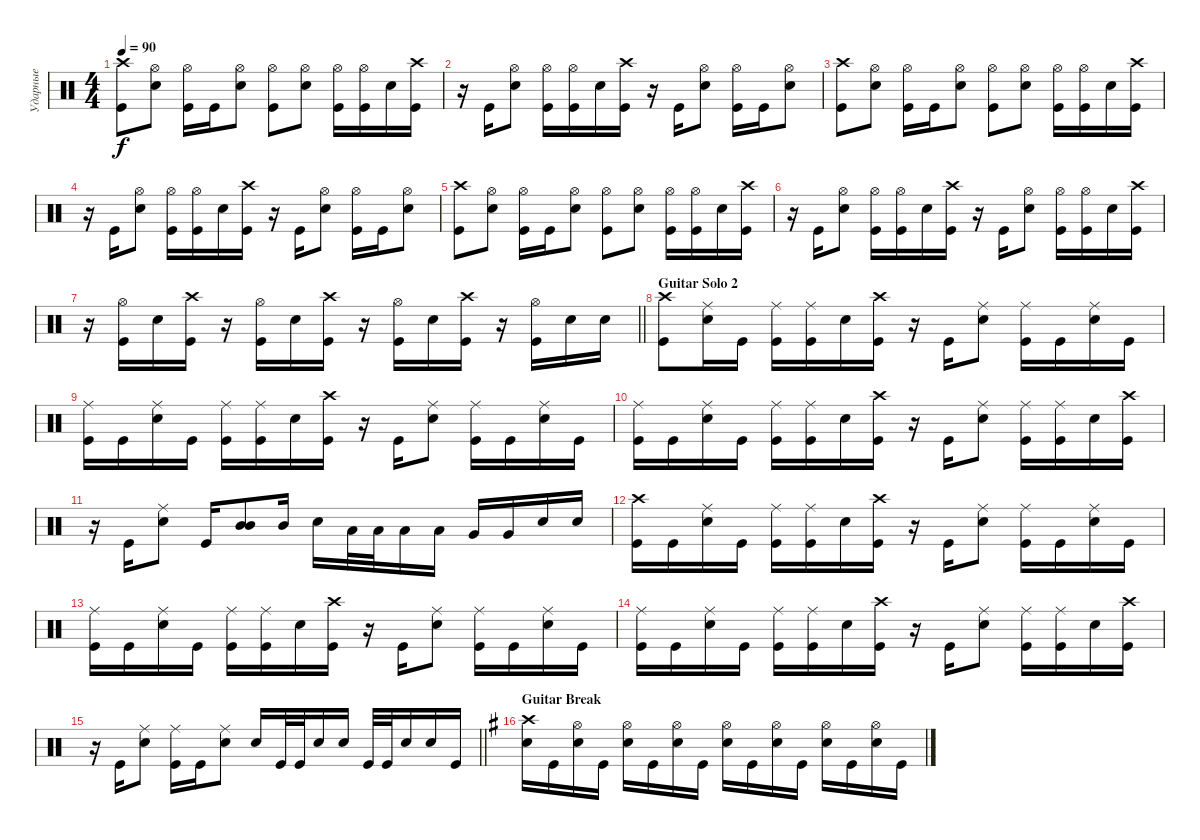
\track ("Ударные" "Ударные") {instrument percussion}
\staff {score}
\articulation defaults
\ts (4 4)
\tempo 90
\clef neutral
\ks aminor
("Kick (hit)" "Crash high (hit)").8{dy f} ("Snare (hit) 2" "Hi-Hat (open)").8 ("Kick (hit)" "Hi-Hat (open)").16 "Kick (hit)".16 ("Snare (hit) 2" "Hi-Hat (open)").8 ("Kick (hit)" "Hi-Hat (open)").8 ("Snare (hit) 2" "Hi-Hat (open)").8 ("Kick (hit)" "Hi-Hat (open)").16 ("Kick (hit)" "Hi-Hat (open)").16 "Snare (hit) 2".16 ("Crash high (hit)" "Kick (hit)").16 |
r.16 "Kick (hit)".16 ("Snare (hit) 2" "Hi-Hat (open)").8 ("Kick (hit)" "Hi-Hat (open)").16 ("Kick (hit)" "Hi-Hat (open)").16 "Snare (hit) 2".16 ("Crash high (hit)" "Kick (hit)").16 r.16 "Kick (hit)".16 ("Snare (hit) 2" "Hi-Hat (open)").8 ("Kick (hit)" "Hi-Hat (open)").16 "Kick (hit)".16 ("Snare (hit) 2" "Hi-Hat (open)").8 |
("Kick (hit)" "Crash high (hit)").8 ("Snare (hit) 2" "Hi-Hat (open)").8 ("Kick (hit)" "Hi-Hat (open)").16 "Kick (hit)".16 ("Snare (hit) 2" "Hi-Hat (open)").8 ("Kick (hit)" "Hi-Hat (open)").8 ("Snare (hit) 2" "Hi-Hat (open)").8 ("Kick (hit)" "Hi-Hat (open)").16 ("Kick (hit)" "Hi-Hat (open)").16 "Snare (hit) 2".16 ("Crash high (hit)" "Kick (hit)").16 |
r.16 "Kick (hit)".16 ("Snare (hit) 2" "Hi-Hat (open)").8 ("Kick (hit)" "Hi-Hat (open)").16 ("Kick (hit)" "Hi-Hat (open)").16 "Snare (hit) 2".16 ("Crash high (hit)" "Kick (hit)").16 r.16 "Kick (hit)".16 ("Snare (hit) 2" "Hi-Hat (open)").8 ("Kick (hit)" "Hi-Hat (open)").16 "Kick (hit)".16 ("Snare (hit) 2" "Hi-Hat (open)").8 |
("Kick (hit)" "Crash high (hit)").8 ("Snare (hit) 2" "Hi-Hat (open)").8 ("Kick (hit)" "Hi-Hat (open)").16 "Kick (hit)".16 ("Snare (hit) 2" "Hi-Hat (open)").8 ("Kick (hit)" "Hi-Hat (open)").8 ("Snare (hit) 2" "Hi-Hat (open)").8 ("Kick (hit)" "Hi-Hat (open)").16 ("Kick (hit)" "Hi-Hat (open)").16 "Snare (hit) 2".16 ("Crash high (hit)" "Kick (hit)").16 |
r.16 "Kick (hit)".16 ("Snare (hit) 2" "Hi-Hat (open)").8 ("Kick (hit)" "Hi-Hat (open)").16 ("Kick (hit)" "Hi-Hat (open)").16 "Snare (hit) 2".16 ("Crash high (hit)" "Kick (hit)").16 r.16 "Kick (hit)".16 ("Snare (hit) 2" "Hi-Hat (open)").8 ("Kick (hit)" "Hi-Hat (open)").16 ("Kick (hit)" "Hi-Hat (open)").16 "Snare (hit) 2".16 ("Kick (hit)" "Crash high (hit)").16 |
\barLineRight lightlight
r.16 ("Kick (hit)" "Hi-Hat (open)").16 "Snare (hit) 2".16 ("Kick (hit)" "Crash high (hit)").16 r.16 ("Kick (hit)" "Hi-Hat (open)").16 "Snare (hit) 2".16 ("Kick (hit)" "Crash high (hit)").16 r.16 ("Kick (hit)" "Hi-Hat (open)").16 "Snare (hit) 2".16 ("Kick (hit)" "Crash high (hit)").16 r.16 ("Kick (hit)" "Hi-Hat (open)").16 "Snare (hit) 2".16 "Snare (hit) 2".16 |
\section ("" "Guitar Solo 2")
("Kick (hit)" "Crash high (hit)").8 ("Snare (hit) 2" "Ride (middle)").16 "Kick (hit)".16 ("Kick (hit)" "Ride (middle)").16 ("Kick (hit)" "Ride (middle)").16 "Snare (hit) 2".16 ("Kick (hit)" "Crash high (hit)").16 r.16 "Kick (hit)".16 ("Snare (hit) 2" "Ride (middle)").8 ("Kick (hit)" "Ride (middle)").16 "Kick (hit)".16 ("Snare (hit) 2" "Ride (middle)").16 "Kick (hit)".16 |
("Kick (hit)" "Ride (middle)").16 "Kick (hit)".16 ("Snare (hit) 2" "Ride (middle)").16 "Kick (hit)".16 ("Kick (hit)" "Ride (middle)").16 ("Kick (hit)" "Ride (middle)").16 "Snare (hit) 2".16 ("Kick (hit)" "Crash high (hit)").16 r.16 "Kick (hit)".16 ("Snare (hit) 2" "Ride (middle)").8 ("Kick (hit)" "Ride (middle)").16 "Kick (hit)".16 ("Snare (hit) 2" "Ride (middle)").16 "Kick (hit)".16 |
("Kick (hit)" "Ride (middle)").16 "Kick (hit)".16 ("Snare (hit) 2" "Ride (middle)").16 "Kick (hit)".16 ("Kick (hit)" "Ride (middle)").16 ("Kick (hit)" "Ride (middle)").16 "Snare (hit) 2".16 ("Kick (hit)" "Crash high (hit)").16 r.16 "Kick (hit)".16 ("Snare (hit) 2" "Ride (middle)").8 ("Kick (hit)" "Ride (middle)").16 ("Kick (hit)" "Ride (middle)").16 "Snare (hit) 2".16 ("Kick (hit)" "Crash high (hit)").16 |
r.16 "Kick (hit)".16 ("Snare (hit) 2" "Ride (middle)").8 "Kick (hit)".16 ("Mid Tom (hit)" "Mid Tom (hit)").8{bd 120} "Mid Tom (hit)".16 "Snare (hit) 2".16 "Low Tom (hit)".32 "Low Tom (hit)".32 "Low Tom (hit)".16 "Low Tom (hit)".16 "Very Low Tom (hit)".16 "Very Low Tom (hit)".16 "Snare (hit) 2".16 "Snare (hit) 2".16 |
("Kick (hit)" "Crash high (hit)").16 "Kick (hit)".16 ("Snare (hit) 2" "Ride (middle)").16 "Kick (hit)".16 ("Kick (hit)" "Ride (middle)").16 ("Kick (hit)" "Ride (middle)").16 "Snare (hit) 2".16 ("Kick (hit)" "Crash high (hit)").16 r.16 "Kick (hit)".16 ("Snare (hit) 2" "Ride (middle)").8 ("Kick (hit)" "Ride (middle)").16 "Kick (hit)".16 ("Snare (hit) 2" "Ride (middle)").16 "Kick (hit)".16 |
("Kick (hit)" "Ride (middle)").16 "Kick (hit)".16 ("Snare (hit) 2" "Ride (middle)").16 "Kick (hit)".16 ("Kick (hit)" "Ride (middle)").16 ("Kick (hit)" "Ride (middle)").16 "Snare (hit) 2".16 ("Kick (hit)" "Crash high (hit)").16 r.16 "Kick (hit)".16 ("Snare (hit) 2" "Ride (middle)").8 ("Kick (hit)" "Ride (middle)").16 "Kick (hit)".16 ("Snare (hit) 2" "Ride (middle)").16 "Kick (hit)".16 |
("Kick (hit)" "Ride (middle)").16 "Kick (hit)".16 ("Snare (hit) 2" "Ride (middle)").16 "Kick (hit)".16 ("Kick (hit)" "Ride (middle)").16 ("Kick (hit)" "Ride (middle)").16 "Snare (hit) 2".16 ("Kick (hit)" "Crash high (hit)").16 r.16 "Kick (hit)".16 ("Snare (hit) 2" "Ride (middle)").8 ("Kick (hit)" "Ride (middle)").16 ("Kick (hit)" "Ride (middle)").16 "Snare (hit) 2".16 ("Kick (hit)" "Crash high (hit)").16 |
\barLineRight lightlight
r.16 "Kick (hit)".16 ("Snare (hit) 2" "Ride (middle)").8 ("Kick (hit)" "Ride (middle)").16 "Kick (hit)".16 ("Snare (hit) 2" "Ride (middle)").8 "Snare (hit) 2".16 "Kick (hit)".32 "Kick (hit)".32 "Snare (hit) 2".16 "Snare (hit) 2".16 "Kick (hit)".32 "Kick (hit)".32 "Snare (hit) 2".16 "Snare (hit) 2".16 "Kick (hit)".16 |
\section ("" "Guitar Break")
\ks eminor
("Snare (hit) 2" "Crash high (hit)").16 "Kick (hit)".16 ("Snare (hit) 2" "Hi-Hat (open)").16 "Kick (hit)".16 ("Snare (hit) 2" "Hi-Hat (open)").16 "Kick (hit)".16 ("Snare (hit) 2" "Hi-Hat (open)").16 "Kick (hit)".16 ("Snare (hit) 2" "Hi-Hat (open)").16 "Kick (hit)".16 ("Snare (hit) 2" "Hi-Hat (open)").16 "Kick (hit)".16 ("Snare (hit) 2" "Hi-Hat (open)").16 "Kick (hit)".16 ("Snare (hit) 2" "Hi-Hat (open)").16 "Kick (hit)".16
